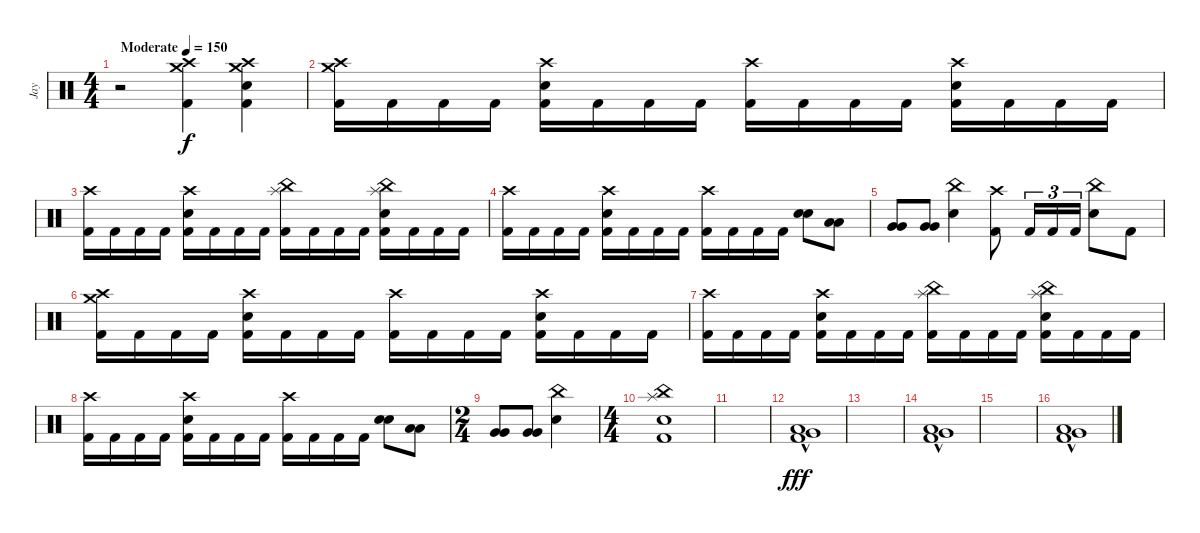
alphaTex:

\track ("Jay" "Jay") {instrument percussion}
\staff {score}
\articulation defaults
\ts (4 4)
\tempo (150 "Moderate")
\clef neutral
\ks c
r.2{dy f} ("Crash high (hit)" "Crash medium (hit)" "Kick (hit) 2").4 ("Crash high (hit)" "Crash medium (hit)" "Electric Snare (hit)" "Kick (hit) 2").4 |
("Crash high (hit)" "Crash medium (hit)" "Kick (hit) 2").16 "Kick (hit) 2".16 "Kick (hit) 2".16 "Kick (hit) 2".16 ("Crash high (hit)" "Electric Snare (hit)" "Kick (hit) 2").16 "Kick (hit) 2".16 "Kick (hit) 2".16 "Kick (hit) 2".16 ("Crash high (hit)" "Kick (hit) 2").16 "Kick (hit) 2".16 "Kick (hit) 2".16 "Kick (hit) 2".16 ("Crash high (hit)" "Electric Snare (hit)" "Kick (hit) 2").16 "Kick (hit) 2".16 "Kick (hit) 2".16 "Kick (hit) 2".16 |
("Crash high (hit)" "Kick (hit) 2").16 "Kick (hit) 2".16 "Kick (hit) 2".16 "Kick (hit) 2".16 ("Crash high (hit)" "Electric Snare (hit)" "Kick (hit) 2").16 "Kick (hit) 2".16 "Kick (hit) 2".16 "Kick (hit) 2".16 ("China (hit)" "Splash (hit)" "Kick (hit) 2").16 "Kick (hit) 2".16 "Kick (hit) 2".16 "Kick (hit) 2".16 ("China (hit)" "Splash (hit)" "Electric Snare (hit)" "Kick (hit) 2").16 "Kick (hit) 2".16 "Kick (hit) 2".16 "Kick (hit) 2".16 |
("Crash high (hit)" "Kick (hit) 2").16 "Kick (hit) 2".16 "Kick (hit) 2".16 "Kick (hit) 2".16 ("Crash high (hit)" "Electric Snare (hit)" "Kick (hit) 2").16 "Kick (hit) 2".16 "Kick (hit) 2".16 "Kick (hit) 2".16 ("Crash high (hit)" "Kick (hit) 2").16 "Kick (hit) 2".16 "Kick (hit) 2".16 "Kick (hit) 2".16 ("Electric Snare (hit)" "Electric Snare (hit)").8{bu 120} ("Low Tom (hit)" "Low Tom (hit)").8{bu 120} |
("Very Low Tom (hit)" "Very Low Tom (hit)").8{bu 120} ("Very Low Tom (hit)" "Very Low Tom (hit)").8{bu 120} ("China (hit)" "Electric Snare (hit)").4 ("Crash high (hit)" "Kick (hit) 2").8 "Kick (hit) 2".16{tu (3 2)} "Kick (hit) 2".16{tu (3 2)} "Kick (hit) 2".16{tu (3 2)} ("China (hit)" "Electric Snare (hit)").8 "Kick (hit) 2".8 |
("Crash high (hit)" "Crash medium (hit)" "Kick (hit) 2").16 "Kick (hit) 2".16 "Kick (hit) 2".16 "Kick (hit) 2".16 ("Crash high (hit)" "Electric Snare (hit)" "Kick (hit) 2").16 "Kick (hit) 2".16 "Kick (hit) 2".16 "Kick (hit) 2".16 ("Crash high (hit)" "Kick (hit) 2").16 "Kick (hit) 2".16 "Kick (hit) 2".16 "Kick (hit) 2".16 ("Crash high (hit)" "Electric Snare (hit)" "Kick (hit) 2").16 "Kick (hit) 2".16 "Kick (hit) 2".16 "Kick (hit) 2".16 |
("Crash high (hit)" "Kick (hit) 2").16 "Kick (hit) 2".16 "Kick (hit) 2".16 "Kick (hit) 2".16 ("Crash high (hit)" "Electric Snare (hit)" "Kick (hit) 2").16 "Kick (hit) 2".16 "Kick (hit) 2".16 "Kick (hit) 2".16 ("China (hit)" "Splash (hit)" "Kick (hit) 2").16 "Kick (hit) 2".16 "Kick (hit) 2".16 "Kick (hit) 2".16 ("China (hit)" "Splash (hit)" "Electric Snare (hit)" "Kick (hit) 2").16 "Kick (hit) 2".16 "Kick (hit) 2".16 "Kick (hit) 2".16 |
("Crash high (hit)" "Kick (hit) 2").16 "Kick (hit) 2".16 "Kick (hit) 2".16 "Kick (hit) 2".16 ("Crash high (hit)" "Electric Snare (hit)" "Kick (hit) 2").16 "Kick (hit) 2".16 "Kick (hit) 2".16 "Kick (hit) 2".16 ("Crash high (hit)" "Kick (hit) 2").16 "Kick (hit) 2".16 "Kick (hit) 2".16 "Kick (hit) 2".16 ("Electric Snare (hit)" "Electric Snare (hit)").8{bu 120} ("Low Tom (hit)" "Low Tom (hit)").8{bu 120} |
\ts (2 4)
("Very Low Tom (hit)" "Very Low Tom (hit)").8{bu 120} ("Very Low Tom (hit)" "Very Low Tom (hit)").8{bu 120} ("China (hit)" "Electric Snare (hit)").4 |
\ts (4 4)
("China (hit)" "Splash (hit)" "Electric Snare (hit)" "Kick (hit) 2").1 |
|
("Very Low Tom (hit)"{hac} "Low Floor Tom (hit)"{hac} "Kick (hit) 2"{hac}).1{dy fff} |
|
("Very Low Tom (hit)"{hac} "Low Floor Tom (hit)"{hac} "Kick (hit) 2"{hac}).1 |
|
("Very Low Tom (hit)"{hac} "Low Floor Tom (hit)"{hac} "Kick (hit) 2"{hac}).1
